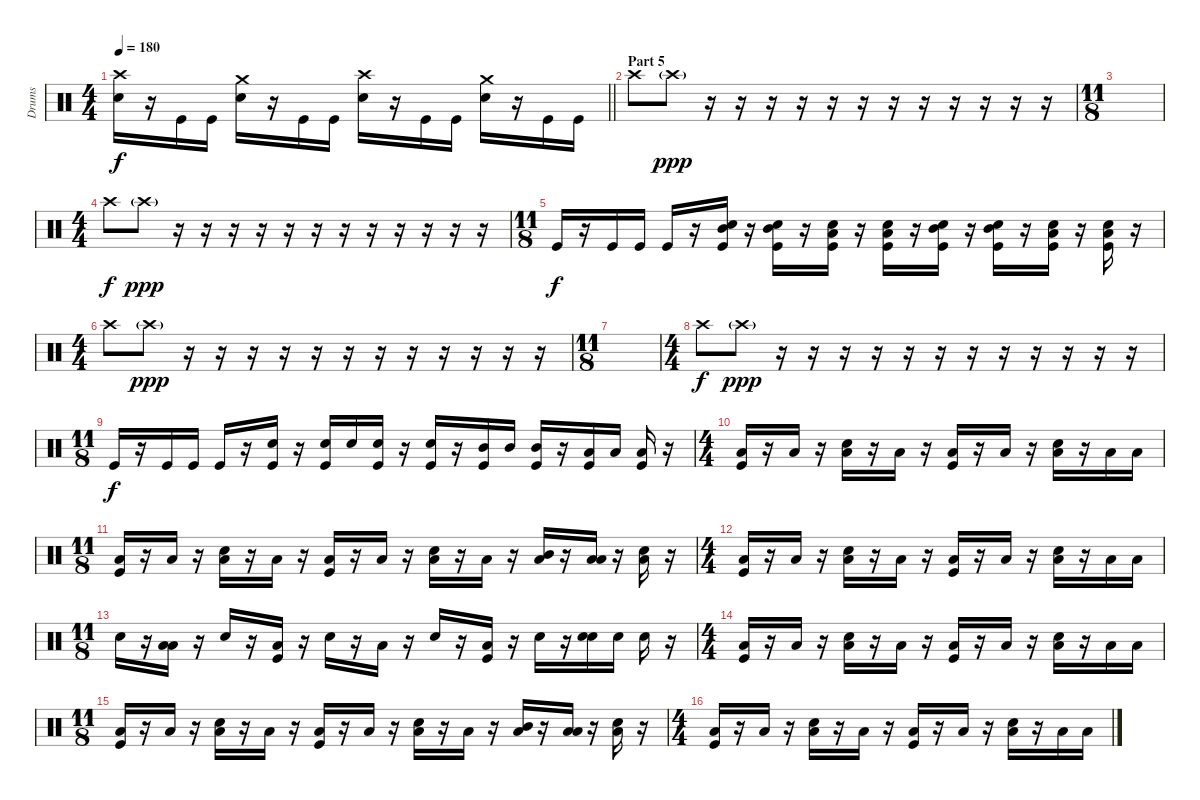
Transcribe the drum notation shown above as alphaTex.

\track ("Drums" "Drums") {instrument percussion}
\staff {score}
\articulation defaults
\ts (4 4)
\tempo 180
\clef neutral
\barLineRight lightlight
\ks c
("Crash high (hit)" "Electric Snare (hit)").16{dy f} r.16 "Kick (hit)".16 "Kick (hit)".16 ("Crash medium (hit)" "Electric Snare (hit)").16 r.16 "Kick (hit)".16 "Kick (hit)".16 ("Crash high (hit)" "Electric Snare (hit)").16 r.16 "Kick (hit)".16 "Kick (hit)".16 ("Crash medium (hit)" "Electric Snare (hit)").16 r.16 "Kick (hit)".16 "Kick (hit)".16 |
\section ("" "Part 5")
"Crash high (hit)".8 "Crash high (hit)"{g}.8{dy ppp} r.16 r.16 r.16 r.16 r.16 r.16 r.16 r.16 r.16 r.16 r.16 r.16 |
\ts (11 8)
|
\ts (4 4)
"Crash high (hit)".8{dy f} "Crash high (hit)"{g}.8{dy ppp} r.16 r.16 r.16 r.16 r.16 r.16 r.16 r.16 r.16 r.16 r.16 r.16 |
\ts (11 8)
"Kick (hit)".16{dy f} r.16 "Kick (hit)".16 "Kick (hit)".16 "Kick (hit)".16 r.16 ("Mid Tom (hit)" "Electric Snare (hit)" "Kick (hit)").16 r.16 ("Mid Tom (hit)" "Electric Snare (hit)" "Kick (hit)").16 r.16 ("Low Tom (hit)" "Electric Snare (hit)" "Kick (hit)").16 r.16 ("Low Tom (hit)" "Electric Snare (hit)" "Kick (hit)").16 r.16 ("Mid Tom (hit)" "Electric Snare (hit)" "Kick (hit)").16 r.16 ("Mid Tom (hit)" "Electric Snare (hit)" "Kick (hit)").16 r.16 ("Low Floor Tom (hit)" "Electric Snare (hit)" "Kick (hit)").16 r.16 ("Low Floor Tom (hit)" "Electric Snare (hit)" "Kick (hit)").16 r.16 |
\ts (4 4)
"Crash high (hit)".8 "Crash high (hit)"{g}.8{dy ppp} r.16 r.16 r.16 r.16 r.16 r.16 r.16 r.16 r.16 r.16 r.16 r.16 |
\ts (11 8)
|
\ts (4 4)
"Crash high (hit)".8{dy f} "Crash high (hit)"{g}.8{dy ppp} r.16 r.16 r.16 r.16 r.16 r.16 r.16 r.16 r.16 r.16 r.16 r.16 |
\ts (11 8)
"Kick (hit)".16{dy f} r.16 "Kick (hit)".16 "Kick (hit)".16 "Kick (hit)".16 r.16 ("Electric Snare (hit)" "Kick (hit)").16 r.16 ("Electric Snare (hit)" "Kick (hit)").16 "Electric Snare (hit)".16 ("Electric Snare (hit)" "Kick (hit)").16 r.16 ("Electric Snare (hit)" "Kick (hit)").16 r.16 ("Mid Tom (hit)" "Kick (hit)").16 "Mid Tom (hit)".16 ("Mid Tom (hit)" "Kick (hit)").16 r.16 ("Low Tom (hit)" "Kick (hit)").16 "Low Tom (hit)".16 ("Low Tom (hit)" "Kick (hit)").16 r.16 |
\ts (4 4)
("Low Floor Tom (hit)" "Kick (hit)").16 r.16 "Low Floor Tom (hit)".16 r.16 ("Electric Snare (hit)" "Low Floor Tom (hit)").16 r.16 "Low Floor Tom (hit)".16 r.16 ("Low Floor Tom (hit)" "Kick (hit)").16 r.16 "Low Floor Tom (hit)".16 r.16 ("Electric Snare (hit)" "Low Floor Tom (hit)").16 r.16 "Low Floor Tom (hit)".16 "Low Tom (hit)".16 |
\ts (11 8)
("Low Floor Tom (hit)" "Kick (hit)").16 r.16 "Low Floor Tom (hit)".16 r.16 ("Electric Snare (hit)" "Low Floor Tom (hit)").16 r.16 "Low Floor Tom (hit)".16 r.16 ("Low Floor Tom (hit)" "Kick (hit)").16 r.16 "Low Floor Tom (hit)".16 r.16 ("Electric Snare (hit)" "Low Floor Tom (hit)").16 r.16 "Low Floor Tom (hit)".16 r.16 ("Mid Tom (hit)" "Low Tom (hit)").16 r.16 ("Low Tom (hit)" "Low Floor Tom (hit)").16 r.16 ("Low Floor Tom (hit)" "Electric Snare (hit)").16 r.16 |
\ts (4 4)
("Low Floor Tom (hit)" "Kick (hit)").16 r.16 "Low Floor Tom (hit)".16 r.16 ("Electric Snare (hit)" "Low Floor Tom (hit)").16 r.16 "Low Floor Tom (hit)".16 r.16 ("Low Floor Tom (hit)" "Kick (hit)").16 r.16 "Low Floor Tom (hit)".16 r.16 ("Electric Snare (hit)" "Low Floor Tom (hit)").16 r.16 "Low Floor Tom (hit)".16 "Low Tom (hit)".16 |
\ts (11 8)
"Electric Snare (hit)".16 r.16 ("Low Tom (hit)" "Low Floor Tom (hit)").16 r.16 "Electric Snare (hit)".16 r.16 ("Low Floor Tom (hit)" "Kick (hit)").16 r.16 "Electric Snare (hit)".16 r.16 "Low Floor Tom (hit)".16 r.16 "Electric Snare (hit)".16 r.16 ("Low Floor Tom (hit)" "Kick (hit)").16 r.16 "Electric Snare (hit)".16 r.16 ("Electric Snare (hit)" "Electric Snare (hit)").16 "Electric Snare (hit)".16 "Electric Snare (hit)".16 r.16 |
\ts (4 4)
("Low Floor Tom (hit)" "Kick (hit)").16 r.16 "Low Floor Tom (hit)".16 r.16 ("Electric Snare (hit)" "Low Floor Tom (hit)").16 r.16 "Low Floor Tom (hit)".16 r.16 ("Low Floor Tom (hit)" "Kick (hit)").16 r.16 "Low Floor Tom (hit)".16 r.16 ("Electric Snare (hit)" "Low Floor Tom (hit)").16 r.16 "Low Floor Tom (hit)".16 "Low Tom (hit)".16 |
\ts (11 8)
("Low Floor Tom (hit)" "Kick (hit)").16 r.16 "Low Floor Tom (hit)".16 r.16 ("Electric Snare (hit)" "Low Floor Tom (hit)").16 r.16 "Low Floor Tom (hit)".16 r.16 ("Low Floor Tom (hit)" "Kick (hit)").16 r.16 "Low Floor Tom (hit)".16 r.16 ("Electric Snare (hit)" "Low Floor Tom (hit)").16 r.16 "Low Floor Tom (hit)".16 r.16 ("Mid Tom (hit)" "Low Tom (hit)").16 r.16 ("Low Tom (hit)" "Low Floor Tom (hit)").16 r.16 ("Low Floor Tom (hit)" "Electric Snare (hit)").16 r.16 |
\ts (4 4)
("Low Floor Tom (hit)" "Kick (hit)").16 r.16 "Low Floor Tom (hit)".16 r.16 ("Electric Snare (hit)" "Low Floor Tom (hit)").16 r.16 "Low Floor Tom (hit)".16 r.16 ("Low Floor Tom (hit)" "Kick (hit)").16 r.16 "Low Floor Tom (hit)".16 r.16 ("Electric Snare (hit)" "Low Floor Tom (hit)").16 r.16 "Low Floor Tom (hit)".16 "Low Tom (hit)".16
